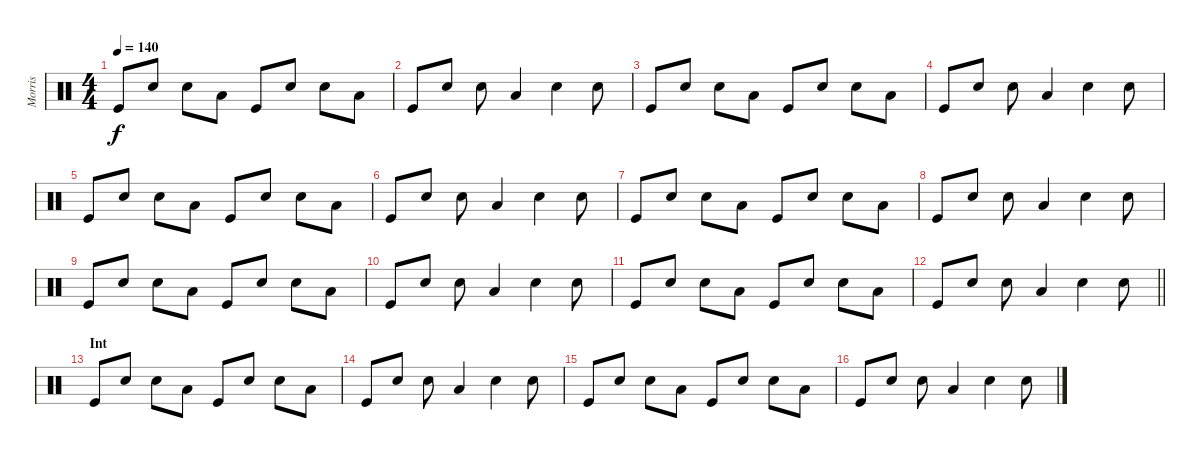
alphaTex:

\track ("Morris" "Morris") {instrument percussion}
\staff {score}
\articulation defaults
\ts (4 4)
\tempo 140
\clef neutral
\ks c "Kick (hit)".8{dy f} "Electric Snare (hit)".8 "Electric Snare (hit)".8 "Low Tom (hit)".8 "Kick (hit)".8 "Electric Snare (hit)".8 "Electric Snare (hit)".8 "Low Tom (hit)".8
|
"Kick (hit)".8 "Electric Snare (hit)".8 "Electric Snare (hit)".8 "Low Tom (hit)".4 "Electric Snare (hit)".4 "Electric Snare (hit)".8 |
"Kick (hit)".8 "Electric Snare (hit)".8 "Electric Snare (hit)".8 "Low Tom (hit)".8 "Kick (hit)".8 "Electric Snare (hit)".8 "Electric Snare (hit)".8 "Low Tom (hit)".8 |
"Kick (hit)".8 "Electric Snare (hit)".8 "Electric Snare (hit)".8 "Low Tom (hit)".4 "Electric Snare (hit)".4 "Electric Snare (hit)".8 |
"Kick (hit)".8 "Electric Snare (hit)".8 "Electric Snare (hit)".8 "Low Tom (hit)".8 "Kick (hit)".8 "Electric Snare (hit)".8 "Electric Snare (hit)".8 "Low Tom (hit)".8 |
"Kick (hit)".8 "Electric Snare (hit)".8 "Electric Snare (hit)".8 "Low Tom (hit)".4 "Electric Snare (hit)".4 "Electric Snare (hit)".8 |
"Kick (hit)".8 "Electric Snare (hit)".8 "Electric Snare (hit)".8 "Low Tom (hit)".8 "Kick (hit)".8 "Electric Snare (hit)".8 "Electric Snare (hit)".8 "Low Tom (hit)".8 |
"Kick (hit)".8 "Electric Snare (hit)".8 "Electric Snare (hit)".8 "Low Tom (hit)".4 "Electric Snare (hit)".4 "Electric Snare (hit)".8 |
"Kick (hit)".8 "Electric Snare (hit)".8 "Electric Snare (hit)".8 "Low Tom (hit)".8 "Kick (hit)".8 "Electric Snare (hit)".8 "Electric Snare (hit)".8 "Low Tom (hit)".8 |
"Kick (hit)".8 "Electric Snare (hit)".8 "Electric Snare (hit)".8 "Low Tom (hit)".4 "Electric Snare (hit)".4 "Electric Snare (hit)".8 |
"Kick (hit)".8 "Electric Snare (hit)".8 "Electric Snare (hit)".8 "Low Tom (hit)".8 "Kick (hit)".8 "Electric Snare (hit)".8 "Electric Snare (hit)".8 "Low Tom (hit)".8 |
\barLineRight lightlight "Kick (hit)".8 "Electric Snare (hit)".8 "Electric Snare (hit)".8 "Low Tom (hit)".4 "Electric Snare (hit)".4 "Electric Snare (hit)".8
|
\section ("" "Int")
"Kick (hit)".8 "Electric Snare (hit)".8 "Electric Snare (hit)".8 "Low Tom (hit)".8 "Kick (hit)".8 "Electric Snare (hit)".8 "Electric Snare (hit)".8 "Low Tom (hit)".8 |
"Kick (hit)".8 "Electric Snare (hit)".8 "Electric Snare (hit)".8 "Low Tom (hit)".4 "Electric Snare (hit)".4 "Electric Snare (hit)".8 |
"Kick (hit)".8 "Electric Snare (hit)".8 "Electric Snare (hit)".8 "Low Tom (hit)".8 "Kick (hit)".8 "Electric Snare (hit)".8 "Electric Snare (hit)".8 "Low Tom (hit)".8 |
"Kick (hit)".8 "Electric Snare (hit)".8 "Electric Snare (hit)".8 "Low Tom (hit)".4 "Electric Snare (hit)".4 "Electric Snare (hit)".8
